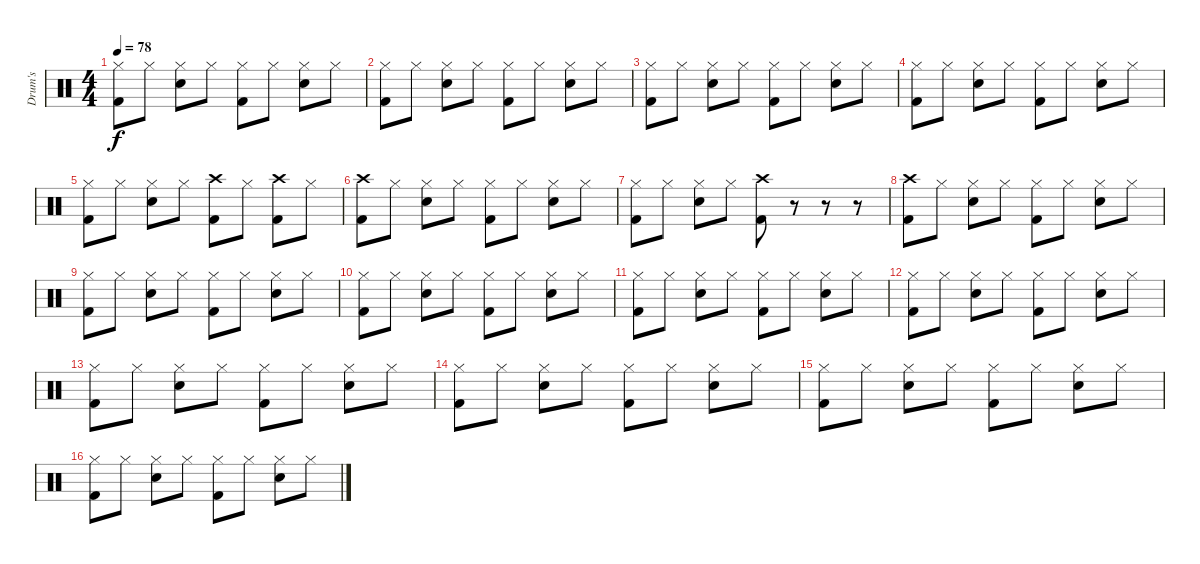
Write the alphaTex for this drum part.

\track ("Drum's " "Drum's ") {instrument percussion}
\staff {score}
\articulation defaults
\ts (4 4)
\tempo 78
\clef neutral
\ks c
("Hi-Hat (closed)" "Kick (hit) 2").8{dy f} "Hi-Hat (closed)".8 ("Hi-Hat (closed)" "Snare (hit) 2").8 "Hi-Hat (closed)".8 ("Hi-Hat (closed)" "Kick (hit) 2").8 "Hi-Hat (closed)".8 ("Hi-Hat (closed)" "Snare (hit) 2").8 "Hi-Hat (closed)".8 |
("Hi-Hat (closed)" "Kick (hit) 2").8 "Hi-Hat (closed)".8 ("Hi-Hat (closed)" "Snare (hit) 2").8 "Hi-Hat (closed)".8 ("Hi-Hat (closed)" "Kick (hit) 2").8 "Hi-Hat (closed)".8 ("Hi-Hat (closed)" "Snare (hit) 2").8 "Hi-Hat (closed)".8 |
("Hi-Hat (closed)" "Kick (hit) 2").8 "Hi-Hat (closed)".8 ("Hi-Hat (closed)" "Snare (hit) 2").8 "Hi-Hat (closed)".8 ("Hi-Hat (closed)" "Kick (hit) 2").8 "Hi-Hat (closed)".8 ("Hi-Hat (closed)" "Snare (hit) 2").8 "Hi-Hat (closed)".8 |
("Hi-Hat (closed)" "Kick (hit) 2").8 "Hi-Hat (closed)".8 ("Hi-Hat (closed)" "Snare (hit) 2").8 "Hi-Hat (closed)".8 ("Hi-Hat (closed)" "Kick (hit) 2").8 "Hi-Hat (closed)".8 ("Hi-Hat (closed)" "Snare (hit) 2").8 "Hi-Hat (closed)".8 |
("Hi-Hat (closed)" "Kick (hit) 2").8 "Hi-Hat (closed)".8 ("Hi-Hat (closed)" "Snare (hit) 2").8 "Hi-Hat (closed)".8 ("Crash high (hit)" "Kick (hit) 2").8 "Hi-Hat (closed)".8 ("Crash high (hit)" "Kick (hit) 2").8 "Hi-Hat (closed)".8 |
("Crash high (hit)" "Kick (hit) 2").8 "Hi-Hat (closed)".8 ("Hi-Hat (closed)" "Snare (hit) 2").8 "Hi-Hat (closed)".8 ("Hi-Hat (closed)" "Kick (hit) 2").8 "Hi-Hat (closed)".8 ("Hi-Hat (closed)" "Snare (hit) 2").8 "Hi-Hat (closed)".8 |
("Hi-Hat (closed)" "Kick (hit) 2").8 "Hi-Hat (closed)".8 ("Hi-Hat (closed)" "Snare (hit) 2").8 "Hi-Hat (closed)".8 ("Crash high (hit)" "Kick (hit) 2").8 r.8 r.8 r.8 |
("Crash high (hit)" "Kick (hit) 2").8 "Hi-Hat (closed)".8 ("Hi-Hat (closed)" "Snare (hit) 2").8 "Hi-Hat (closed)".8 ("Hi-Hat (closed)" "Kick (hit) 2").8 "Hi-Hat (closed)".8 ("Hi-Hat (closed)" "Snare (hit) 2").8 "Hi-Hat (closed)".8 |
("Hi-Hat (closed)" "Kick (hit) 2").8 "Hi-Hat (closed)".8 ("Hi-Hat (closed)" "Snare (hit) 2").8 "Hi-Hat (closed)".8 ("Hi-Hat (closed)" "Kick (hit) 2").8 "Hi-Hat (closed)".8 ("Hi-Hat (closed)" "Snare (hit) 2").8 "Hi-Hat (closed)".8 |
("Hi-Hat (closed)" "Kick (hit) 2").8 "Hi-Hat (closed)".8 ("Hi-Hat (closed)" "Snare (hit) 2").8 "Hi-Hat (closed)".8 ("Hi-Hat (closed)" "Kick (hit) 2").8 "Hi-Hat (closed)".8 ("Hi-Hat (closed)" "Snare (hit) 2").8 "Hi-Hat (closed)".8 |
("Hi-Hat (closed)" "Kick (hit) 2").8 "Hi-Hat (closed)".8 ("Hi-Hat (closed)" "Snare (hit) 2").8 "Hi-Hat (closed)".8 ("Hi-Hat (closed)" "Kick (hit) 2").8 "Hi-Hat (closed)".8 ("Hi-Hat (closed)" "Snare (hit) 2").8 "Hi-Hat (closed)".8 |
("Hi-Hat (closed)" "Kick (hit) 2").8 "Hi-Hat (closed)".8 ("Hi-Hat (closed)" "Snare (hit) 2").8 "Hi-Hat (closed)".8 ("Hi-Hat (closed)" "Kick (hit) 2").8 "Hi-Hat (closed)".8 ("Hi-Hat (closed)" "Snare (hit) 2").8 "Hi-Hat (closed)".8 |
("Hi-Hat (closed)" "Kick (hit) 2").8 "Hi-Hat (closed)".8 ("Hi-Hat (closed)" "Snare (hit) 2").8 "Hi-Hat (closed)".8 ("Hi-Hat (closed)" "Kick (hit) 2").8 "Hi-Hat (closed)".8 ("Hi-Hat (closed)" "Snare (hit) 2").8 "Hi-Hat (closed)".8 |
("Hi-Hat (closed)" "Kick (hit) 2").8 "Hi-Hat (closed)".8 ("Hi-Hat (closed)" "Snare (hit) 2").8 "Hi-Hat (closed)".8 ("Hi-Hat (closed)" "Kick (hit) 2").8 "Hi-Hat (closed)".8 ("Hi-Hat (closed)" "Snare (hit) 2").8 "Hi-Hat (closed)".8 |
("Hi-Hat (closed)" "Kick (hit) 2").8 "Hi-Hat (closed)".8 ("Hi-Hat (closed)" "Snare (hit) 2").8 "Hi-Hat (closed)".8 ("Hi-Hat (closed)" "Kick (hit) 2").8 "Hi-Hat (closed)".8 ("Hi-Hat (closed)" "Snare (hit) 2").8 "Hi-Hat (closed)".8 |
("Hi-Hat (closed)" "Kick (hit) 2").8 "Hi-Hat (closed)".8 ("Hi-Hat (closed)" "Snare (hit) 2").8 "Hi-Hat (closed)".8 ("Hi-Hat (closed)" "Kick (hit) 2").8 "Hi-Hat (closed)".8 ("Hi-Hat (closed)" "Snare (hit) 2").8 "Hi-Hat (closed)".8
